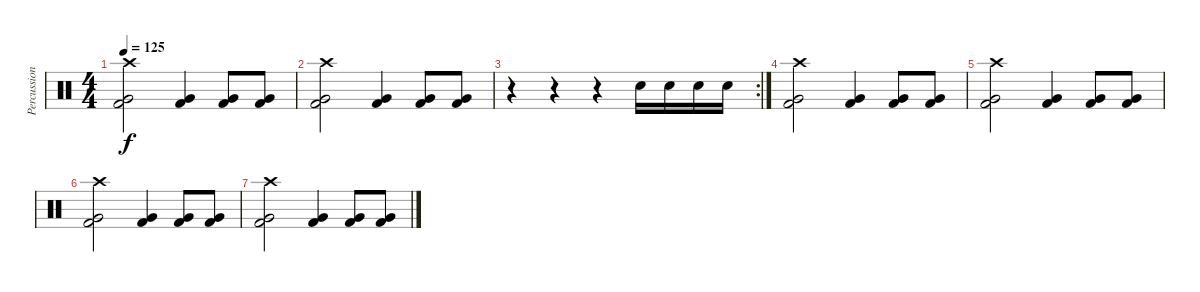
\track ("Percussion" "Percussion") {instrument percussion}
\staff {score}
\articulation defaults
\ts (4 4)
\tempo 125
\clef neutral
\ks c
("Crash high (hit)" "Very Low Tom (hit)" "Kick (hit) 2").2{dy f} ("Very Low Tom (hit)" "Kick (hit) 2").4 ("Very Low Tom (hit)" "Kick (hit) 2").8 ("Very Low Tom (hit)" "Kick (hit) 2").8 |
("Crash high (hit)" "Very Low Tom (hit)" "Kick (hit) 2").2 ("Very Low Tom (hit)" "Kick (hit) 2").4 ("Very Low Tom (hit)" "Kick (hit) 2").8 ("Very Low Tom (hit)" "Kick (hit) 2").8 |
\rc 2
r.4 r.4 r.4 "Snare (hit) 2".16 "Snare (hit) 2".16 "Snare (hit) 2".16 "Snare (hit) 2".16 |
("Crash high (hit)" "Very Low Tom (hit)" "Kick (hit) 2").2 ("Very Low Tom (hit)" "Kick (hit) 2").4 ("Very Low Tom (hit)" "Kick (hit) 2").8 ("Very Low Tom (hit)" "Kick (hit) 2").8 |
("Crash high (hit)" "Very Low Tom (hit)" "Kick (hit) 2").2 ("Very Low Tom (hit)" "Kick (hit) 2").4 ("Very Low Tom (hit)" "Kick (hit) 2").8 ("Very Low Tom (hit)" "Kick (hit) 2").8 |
("Crash high (hit)" "Very Low Tom (hit)" "Kick (hit) 2").2 ("Very Low Tom (hit)" "Kick (hit) 2").4 ("Very Low Tom (hit)" "Kick (hit) 2").8 ("Very Low Tom (hit)" "Kick (hit) 2").8 |
("Crash high (hit)" "Very Low Tom (hit)" "Kick (hit) 2").2 ("Very Low Tom (hit)" "Kick (hit) 2").4 ("Very Low Tom (hit)" "Kick (hit) 2").8 ("Very Low Tom (hit)" "Kick (hit) 2").8
